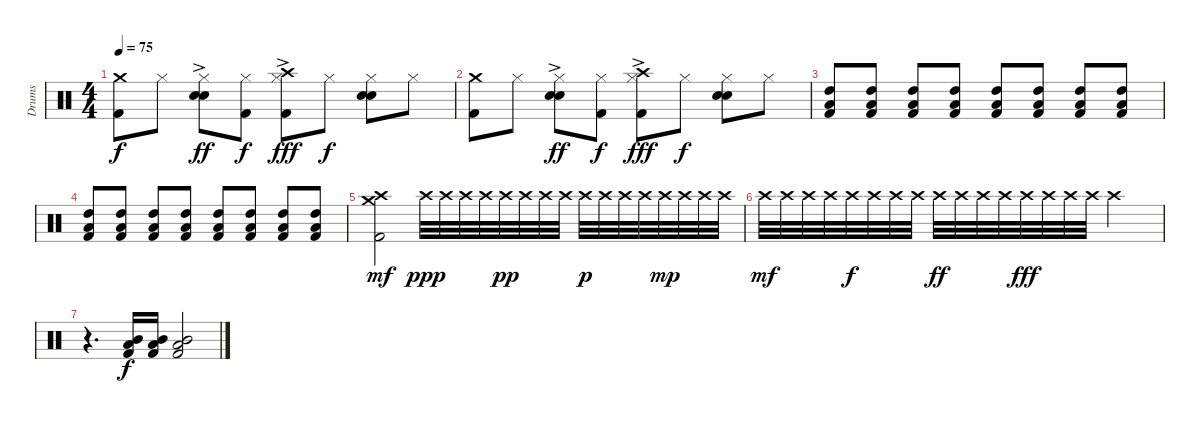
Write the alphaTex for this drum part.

\track ("Drums" "Drums") {instrument percussion}
\staff {score}
\articulation defaults
\ts (4 4)
\tempo 75
\clef neutral
\ks c
("Crash medium (hit)" "Kick (hit) 2").8{dy f} "Hi-Hat (closed)".8 ("Snare (hit) 2"{ac} "Electric Snare (hit)"{ac} "Hi-Hat (closed)").8{dy ff} ("Kick (hit) 2" "Hi-Hat (closed)").8{dy f} ("Crash high (hit)"{ac} "Kick (hit) 2" "Hi-Hat (closed)").8{dy fff} "Hi-Hat (closed)".8{dy f} ("Snare (hit) 2" "Electric Snare (hit)" "Hi-Hat (closed)").8 "Hi-Hat (closed)".8 |
("Crash medium (hit)" "Kick (hit) 2").8 "Hi-Hat (closed)".8 ("Snare (hit) 2"{ac} "Electric Snare (hit)"{ac} "Hi-Hat (closed)").8{dy ff} ("Kick (hit) 2" "Hi-Hat (closed)").8{dy f} ("Crash high (hit)"{ac} "Kick (hit) 2" "Hi-Hat (closed)").8{dy fff} "Hi-Hat (closed)".8{dy f} ("Snare (hit) 2" "Electric Snare (hit)" "Hi-Hat (closed)").8 "Hi-Hat (closed)".8 |
("High Tom (hit)" "Kick (hit) 2" "Low Tom (hit)").8 ("High Tom (hit)" "Kick (hit) 2" "Low Tom (hit)").8 ("High Tom (hit)" "Kick (hit) 2" "Low Tom (hit)").8 ("High Tom (hit)" "Kick (hit) 2" "Low Tom (hit)").8 ("High Tom (hit)" "Kick (hit) 2" "Low Tom (hit)").8 ("High Tom (hit)" "Kick (hit) 2" "Low Tom (hit)").8 ("High Tom (hit)" "Kick (hit) 2" "Low Tom (hit)").8 ("High Tom (hit)" "Kick (hit) 2" "Low Tom (hit)").8 |
("High Tom (hit)" "Kick (hit) 2" "Low Tom (hit)").8 ("High Tom (hit)" "Kick (hit) 2" "Low Tom (hit)").8 ("High Tom (hit)" "Kick (hit) 2" "Low Tom (hit)").8 ("High Tom (hit)" "Kick (hit) 2" "Low Tom (hit)").8 ("High Tom (hit)" "Kick (hit) 2" "Low Tom (hit)").8 ("High Tom (hit)" "Kick (hit) 2" "Low Tom (hit)").8 ("High Tom (hit)" "Kick (hit) 2" "Low Tom (hit)").8 ("High Tom (hit)" "Kick (hit) 2" "Low Tom (hit)").8 |
("Crash medium (hit)" "Crash high (hit)" "Kick (hit) 2").2{dy mf} "Crash high (hit)".32{dy ppp} "Crash high (hit)".32 "Crash high (hit)".32 "Crash high (hit)".32 "Crash high (hit)".32{dy pp} "Crash high (hit)".32 "Crash high (hit)".32 "Crash high (hit)".32 "Crash high (hit)".32{dy p} "Crash high (hit)".32 "Crash high (hit)".32 "Crash high (hit)".32 "Crash high (hit)".32{dy mp} "Crash high (hit)".32 "Crash high (hit)".32 "Crash high (hit)".32 |
"Crash high (hit)".32{dy mf} "Crash high (hit)".32 "Crash high (hit)".32 "Crash high (hit)".32 "Crash high (hit)".32{dy f} "Crash high (hit)".32 "Crash high (hit)".32 "Crash high (hit)".32 "Crash high (hit)".32{dy ff} "Crash high (hit)".32 "Crash high (hit)".32 "Crash high (hit)".32 "Crash high (hit)".32{dy fff} "Crash high (hit)".32 "Crash high (hit)".32 "Crash high (hit)".32 "Crash high (hit)".2 |
r.4{d} ("Low Tom (hit)" "Mid Tom (hit)" "Kick (hit) 2").16{dy f} ("Low Tom (hit)" "Mid Tom (hit)" "Kick (hit) 2").16 ("Low Tom (hit)" "Mid Tom (hit)" "Kick (hit) 2").2{volume 0}
